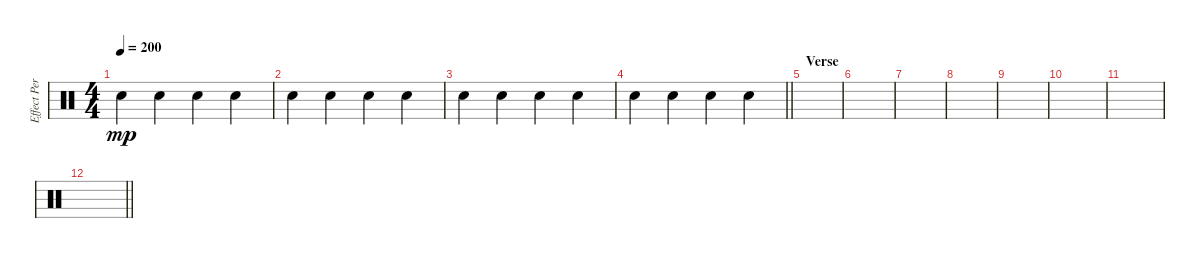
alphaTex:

\track ("Effect Percusion" "Effect Per") {instrument percussion}
\staff {score}
\articulation defaults
\ts (4 4)
\tempo 200
\clef neutral
\ks c "Hand Clap (hit)".4{dy mp} "Hand Clap (hit)".4 "Hand Clap (hit)".4 "Hand Clap (hit)".4
|
"Hand Clap (hit)".4 "Hand Clap (hit)".4 "Hand Clap (hit)".4 "Hand Clap (hit)".4 |
"Hand Clap (hit)".4 "Hand Clap (hit)".4 "Hand Clap (hit)".4 "Hand Clap (hit)".4 |
\barLineRight lightlight "Hand Clap (hit)".4 "Hand Clap (hit)".4 "Hand Clap (hit)".4 "Hand Clap (hit)".4
|
\section ("" "Verse")
|
|
|
|
|
|
|
\barLineRight lightlight
